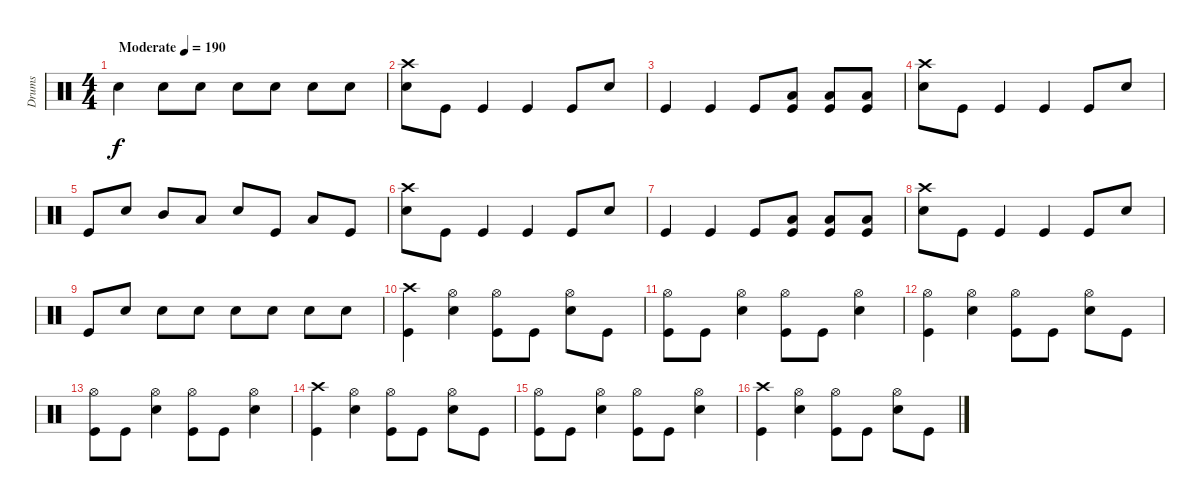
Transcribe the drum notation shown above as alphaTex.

\track ("Drums" "Drums") {instrument percussion}
\staff {score}
\articulation defaults
\ts (4 4)
\tempo (190 "Moderate")
\clef neutral
\ks c "Electric Snare (hit)".4{dy f} "Electric Snare (hit)".8 "Electric Snare (hit)".8 "Electric Snare (hit)".8 "Electric Snare (hit)".8 "Electric Snare (hit)".8 "Electric Snare (hit)".8
|
("Crash high (hit)" "Electric Snare (hit)").8 "Kick (hit)".8 "Kick (hit)".4 "Kick (hit)".4 "Kick (hit)".8 "Electric Snare (hit)".8 |
"Kick (hit)".4 "Kick (hit)".4 "Kick (hit)".8 ("Low Tom (hit)" "Kick (hit)").8 ("Low Tom (hit)" "Kick (hit)").8 ("Low Tom (hit)" "Kick (hit)").8 |
("Crash high (hit)" "Electric Snare (hit)").8 "Kick (hit)".8 "Kick (hit)".4 "Kick (hit)".4 "Kick (hit)".8 "Electric Snare (hit)".8 |
"Kick (hit)".8 "Electric Snare (hit)".8 "Mid Tom (hit)".8 "Low Tom (hit)".8 "Electric Snare (hit)".8 "Kick (hit)".8 "Low Tom (hit)".8 "Kick (hit)".8 |
("Crash high (hit)" "Electric Snare (hit)").8 "Kick (hit)".8 "Kick (hit)".4 "Kick (hit)".4 "Kick (hit)".8 "Electric Snare (hit)".8 |
"Kick (hit)".4 "Kick (hit)".4 "Kick (hit)".8 ("Low Tom (hit)" "Kick (hit)").8 ("Low Tom (hit)" "Kick (hit)").8 ("Low Tom (hit)" "Kick (hit)").8 |
("Crash high (hit)" "Electric Snare (hit)").8 "Kick (hit)".8 "Kick (hit)".4 "Kick (hit)".4 "Kick (hit)".8 "Electric Snare (hit)".8 |
"Kick (hit)".8 "Electric Snare (hit)".8 "Electric Snare (hit)".8 "Electric Snare (hit)".8 "Electric Snare (hit)".8 "Electric Snare (hit)".8 "Electric Snare (hit)".8 "Electric Snare (hit)".8 |
("Crash high (hit)" "Kick (hit)").4 ("Hi-Hat (open)" "Electric Snare (hit)").4 ("Hi-Hat (open)" "Kick (hit)").8 "Kick (hit)".8 ("Hi-Hat (open)" "Electric Snare (hit)").8 "Kick (hit)".8 |
("Hi-Hat (open)" "Kick (hit)").8 "Kick (hit)".8 ("Hi-Hat (open)" "Electric Snare (hit)").4 ("Hi-Hat (open)" "Kick (hit)").8 "Kick (hit)".8 ("Hi-Hat (open)" "Electric Snare (hit)").4 |
("Hi-Hat (open)" "Kick (hit)").4 ("Hi-Hat (open)" "Electric Snare (hit)").4 ("Hi-Hat (open)" "Kick (hit)").8 "Kick (hit)".8 ("Hi-Hat (open)" "Electric Snare (hit)").8 "Kick (hit)".8 |
("Hi-Hat (open)" "Kick (hit)").8 "Kick (hit)".8 ("Hi-Hat (open)" "Electric Snare (hit)").4 ("Hi-Hat (open)" "Kick (hit)").8 "Kick (hit)".8 ("Hi-Hat (open)" "Electric Snare (hit)").4 |
("Crash high (hit)" "Kick (hit)").4 ("Hi-Hat (open)" "Electric Snare (hit)").4 ("Hi-Hat (open)" "Kick (hit)").8 "Kick (hit)".8 ("Hi-Hat (open)" "Electric Snare (hit)").8 "Kick (hit)".8 |
("Hi-Hat (open)" "Kick (hit)").8 "Kick (hit)".8 ("Hi-Hat (open)" "Electric Snare (hit)").4 ("Hi-Hat (open)" "Kick (hit)").8 "Kick (hit)".8 ("Hi-Hat (open)" "Electric Snare (hit)").4 |
("Crash high (hit)" "Kick (hit)").4 ("Hi-Hat (open)" "Electric Snare (hit)").4 ("Hi-Hat (open)" "Kick (hit)").8 "Kick (hit)".8 ("Hi-Hat (open)" "Electric Snare (hit)").8 "Kick (hit)".8
